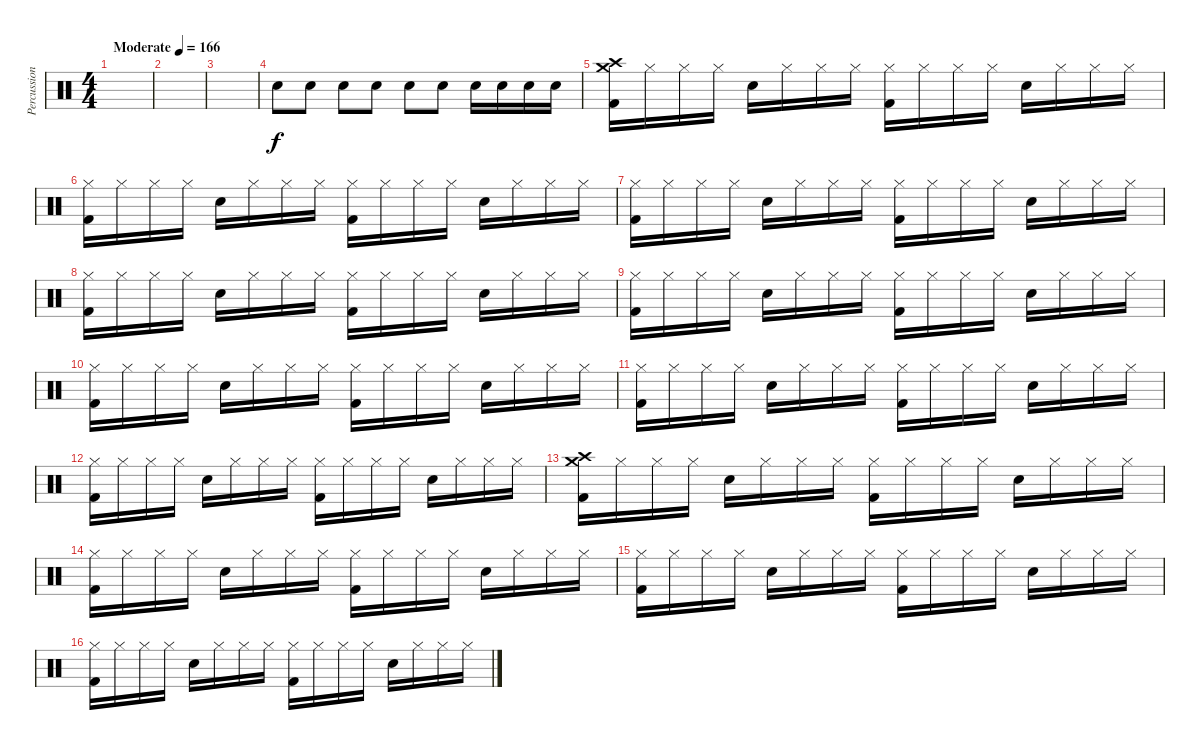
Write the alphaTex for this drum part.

\track ("Percussion" "Percussion") {instrument percussion}
\staff {score}
\articulation defaults
\ts (4 4)
\tempo (166 "Moderate")
\clef neutral
\ks c
|
|
|
"Snare (hit) 2".8 "Snare (hit) 2".8 "Snare (hit) 2".8 "Snare (hit) 2".8 "Snare (hit) 2".8 "Snare (hit) 2".8 "Snare (hit) 2".16 "Snare (hit) 2".16 "Snare (hit) 2".16 "Snare (hit) 2".16 |
("Crash high (hit)" "Crash medium (hit)" "Kick (hit) 2").16 "Hi-Hat (closed)".16 "Hi-Hat (closed)".16 "Hi-Hat (closed)".16 "Snare (hit) 2".16 "Hi-Hat (closed)".16 "Hi-Hat (closed)".16 "Hi-Hat (closed)".16 ("Hi-Hat (closed)" "Kick (hit) 2").16 "Hi-Hat (closed)".16 "Hi-Hat (closed)".16 "Hi-Hat (closed)".16 "Snare (hit) 2".16 "Hi-Hat (closed)".16 "Hi-Hat (closed)".16 "Hi-Hat (closed)".16 |
("Hi-Hat (closed)" "Kick (hit) 2").16 "Hi-Hat (closed)".16 "Hi-Hat (closed)".16 "Hi-Hat (closed)".16 "Snare (hit) 2".16 "Hi-Hat (closed)".16 "Hi-Hat (closed)".16 "Hi-Hat (closed)".16 ("Hi-Hat (closed)" "Kick (hit) 2").16 "Hi-Hat (closed)".16 "Hi-Hat (closed)".16 "Hi-Hat (closed)".16 "Snare (hit) 2".16 "Hi-Hat (closed)".16 "Hi-Hat (closed)".16 "Hi-Hat (closed)".16 |
("Hi-Hat (closed)" "Kick (hit) 2").16 "Hi-Hat (closed)".16 "Hi-Hat (closed)".16 "Hi-Hat (closed)".16 "Snare (hit) 2".16 "Hi-Hat (closed)".16 "Hi-Hat (closed)".16 "Hi-Hat (closed)".16 ("Hi-Hat (closed)" "Kick (hit) 2").16 "Hi-Hat (closed)".16 "Hi-Hat (closed)".16 "Hi-Hat (closed)".16 "Snare (hit) 2".16 "Hi-Hat (closed)".16 "Hi-Hat (closed)".16 "Hi-Hat (closed)".16 |
("Hi-Hat (closed)" "Kick (hit) 2").16 "Hi-Hat (closed)".16 "Hi-Hat (closed)".16 "Hi-Hat (closed)".16 "Snare (hit) 2".16 "Hi-Hat (closed)".16 "Hi-Hat (closed)".16 "Hi-Hat (closed)".16 ("Hi-Hat (closed)" "Kick (hit) 2").16 "Hi-Hat (closed)".16 "Hi-Hat (closed)".16 "Hi-Hat (closed)".16 "Snare (hit) 2".16 "Hi-Hat (closed)".16 "Hi-Hat (closed)".16 "Hi-Hat (closed)".16 |
("Hi-Hat (closed)" "Kick (hit) 2").16 "Hi-Hat (closed)".16 "Hi-Hat (closed)".16 "Hi-Hat (closed)".16 "Snare (hit) 2".16 "Hi-Hat (closed)".16 "Hi-Hat (closed)".16 "Hi-Hat (closed)".16 ("Hi-Hat (closed)" "Kick (hit) 2").16 "Hi-Hat (closed)".16 "Hi-Hat (closed)".16 "Hi-Hat (closed)".16 "Snare (hit) 2".16 "Hi-Hat (closed)".16 "Hi-Hat (closed)".16 "Hi-Hat (closed)".16 |
("Hi-Hat (closed)" "Kick (hit) 2").16 "Hi-Hat (closed)".16 "Hi-Hat (closed)".16 "Hi-Hat (closed)".16 "Snare (hit) 2".16 "Hi-Hat (closed)".16 "Hi-Hat (closed)".16 "Hi-Hat (closed)".16 ("Hi-Hat (closed)" "Kick (hit) 2").16 "Hi-Hat (closed)".16 "Hi-Hat (closed)".16 "Hi-Hat (closed)".16 "Snare (hit) 2".16 "Hi-Hat (closed)".16 "Hi-Hat (closed)".16 "Hi-Hat (closed)".16 |
("Hi-Hat (closed)" "Kick (hit) 2").16 "Hi-Hat (closed)".16 "Hi-Hat (closed)".16 "Hi-Hat (closed)".16 "Snare (hit) 2".16 "Hi-Hat (closed)".16 "Hi-Hat (closed)".16 "Hi-Hat (closed)".16 ("Hi-Hat (closed)" "Kick (hit) 2").16 "Hi-Hat (closed)".16 "Hi-Hat (closed)".16 "Hi-Hat (closed)".16 "Snare (hit) 2".16 "Hi-Hat (closed)".16 "Hi-Hat (closed)".16 "Hi-Hat (closed)".16 |
("Hi-Hat (closed)" "Kick (hit) 2").16 "Hi-Hat (closed)".16 "Hi-Hat (closed)".16 "Hi-Hat (closed)".16 "Snare (hit) 2".16 "Hi-Hat (closed)".16 "Hi-Hat (closed)".16 "Hi-Hat (closed)".16 ("Hi-Hat (closed)" "Kick (hit) 2").16 "Hi-Hat (closed)".16 "Hi-Hat (closed)".16 "Hi-Hat (closed)".16 "Snare (hit) 2".16 "Hi-Hat (closed)".16 "Hi-Hat (closed)".16 "Hi-Hat (closed)".16 |
("Crash high (hit)" "Crash medium (hit)" "Kick (hit) 2").16 "Hi-Hat (closed)".16 "Hi-Hat (closed)".16 "Hi-Hat (closed)".16 "Snare (hit) 2".16 "Hi-Hat (closed)".16 "Hi-Hat (closed)".16 "Hi-Hat (closed)".16 ("Hi-Hat (closed)" "Kick (hit) 2").16 "Hi-Hat (closed)".16 "Hi-Hat (closed)".16 "Hi-Hat (closed)".16 "Snare (hit) 2".16 "Hi-Hat (closed)".16 "Hi-Hat (closed)".16 "Hi-Hat (closed)".16 |
("Hi-Hat (closed)" "Kick (hit) 2").16 "Hi-Hat (closed)".16 "Hi-Hat (closed)".16 "Hi-Hat (closed)".16 "Snare (hit) 2".16 "Hi-Hat (closed)".16 "Hi-Hat (closed)".16 "Hi-Hat (closed)".16 ("Hi-Hat (closed)" "Kick (hit) 2").16 "Hi-Hat (closed)".16 "Hi-Hat (closed)".16 "Hi-Hat (closed)".16 "Snare (hit) 2".16 "Hi-Hat (closed)".16 "Hi-Hat (closed)".16 "Hi-Hat (closed)".16 |
("Hi-Hat (closed)" "Kick (hit) 2").16 "Hi-Hat (closed)".16 "Hi-Hat (closed)".16 "Hi-Hat (closed)".16 "Snare (hit) 2".16 "Hi-Hat (closed)".16 "Hi-Hat (closed)".16 "Hi-Hat (closed)".16 ("Hi-Hat (closed)" "Kick (hit) 2").16 "Hi-Hat (closed)".16 "Hi-Hat (closed)".16 "Hi-Hat (closed)".16 "Snare (hit) 2".16 "Hi-Hat (closed)".16 "Hi-Hat (closed)".16 "Hi-Hat (closed)".16 |
("Hi-Hat (closed)" "Kick (hit) 2").16 "Hi-Hat (closed)".16 "Hi-Hat (closed)".16 "Hi-Hat (closed)".16 "Snare (hit) 2".16 "Hi-Hat (closed)".16 "Hi-Hat (closed)".16 "Hi-Hat (closed)".16 ("Hi-Hat (closed)" "Kick (hit) 2").16 "Hi-Hat (closed)".16 "Hi-Hat (closed)".16 "Hi-Hat (closed)".16 "Snare (hit) 2".16 "Hi-Hat (closed)".16 "Hi-Hat (closed)".16 "Hi-Hat (closed)".16
